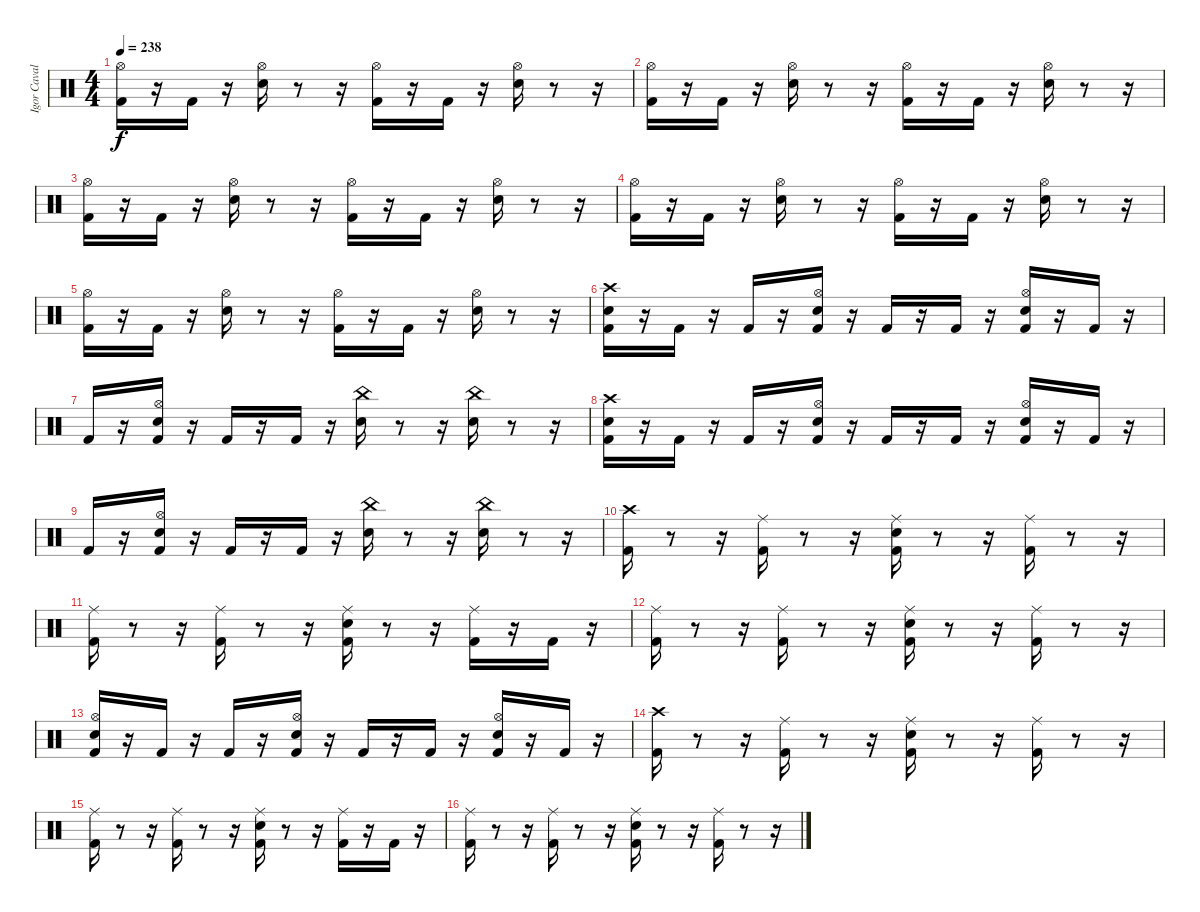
\track ("Igor Cavalera" "Igor Caval") {instrument percussion}
\staff {score}
\articulation defaults
\ts (4 4)
\tempo 238
\clef neutral
\ks c
("Kick (hit) 2" "Hi-Hat (open)").16{dy f} r.16 "Kick (hit) 2".16 r.16 ("Hi-Hat (open)" "Snare (hit) 2").16 r.8 r.16 ("Hi-Hat (open)" "Kick (hit) 2").16 r.16 "Kick (hit) 2".16 r.16 ("Hi-Hat (open)" "Snare (hit) 2").16 r.8 r.16 |
("Kick (hit) 2" "Hi-Hat (open)").16 r.16 "Kick (hit) 2".16 r.16 ("Hi-Hat (open)" "Snare (hit) 2").16 r.8 r.16 ("Hi-Hat (open)" "Kick (hit) 2").16 r.16 "Kick (hit) 2".16 r.16 ("Hi-Hat (open)" "Snare (hit) 2").16 r.8 r.16 |
("Kick (hit) 2" "Hi-Hat (open)").16 r.16 "Kick (hit) 2".16 r.16 ("Hi-Hat (open)" "Snare (hit) 2").16 r.8 r.16 ("Hi-Hat (open)" "Kick (hit) 2").16 r.16 "Kick (hit) 2".16 r.16 ("Hi-Hat (open)" "Snare (hit) 2").16 r.8 r.16 |
("Kick (hit) 2" "Hi-Hat (open)").16 r.16 "Kick (hit) 2".16 r.16 ("Hi-Hat (open)" "Snare (hit) 2").16 r.8 r.16 ("Hi-Hat (open)" "Kick (hit) 2").16 r.16 "Kick (hit) 2".16 r.16 ("Hi-Hat (open)" "Snare (hit) 2").16 r.8 r.16 |
("Kick (hit) 2" "Hi-Hat (open)").16 r.16 "Kick (hit) 2".16 r.16 ("Hi-Hat (open)" "Snare (hit) 2").16 r.8 r.16 ("Hi-Hat (open)" "Kick (hit) 2").16 r.16 "Kick (hit) 2".16 r.16 ("Hi-Hat (open)" "Snare (hit) 2").16 r.8 r.16 |
("Kick (hit) 2" "Crash high (hit)" "Snare (hit) 2").16 r.16 "Kick (hit) 2".16 r.16 "Kick (hit) 2".16 r.16 ("Kick (hit) 2" "Snare (hit) 2" "Hi-Hat (open)").16 r.16 "Kick (hit) 2".16 r.16 "Kick (hit) 2".16 r.16 ("Kick (hit) 2" "Snare (hit) 2" "Hi-Hat (open)").16 r.16 "Kick (hit) 2".16 r.16 |
"Kick (hit) 2".16 r.16 ("Kick (hit) 2" "Snare (hit) 2" "Hi-Hat (open)").16 r.16 "Kick (hit) 2".16 r.16 "Kick (hit) 2".16 r.16 ("Snare (hit) 2" "China (hit)").16 r.8 r.16 ("Snare (hit) 2" "China (hit)").16 r.8 r.16 |
("Kick (hit) 2" "Crash high (hit)" "Snare (hit) 2").16 r.16 "Kick (hit) 2".16 r.16 "Kick (hit) 2".16 r.16 ("Kick (hit) 2" "Snare (hit) 2" "Hi-Hat (open)").16 r.16 "Kick (hit) 2".16 r.16 "Kick (hit) 2".16 r.16 ("Kick (hit) 2" "Snare (hit) 2" "Hi-Hat (open)").16 r.16 "Kick (hit) 2".16 r.16 |
"Kick (hit) 2".16 r.16 ("Kick (hit) 2" "Snare (hit) 2" "Hi-Hat (open)").16 r.16 "Kick (hit) 2".16 r.16 "Kick (hit) 2".16 r.16 ("Snare (hit) 2" "China (hit)").16 r.8 r.16 ("Snare (hit) 2" "China (hit)").16 r.8 r.16 |
("Crash high (hit)" "Kick (hit) 2").16 r.8 r.16 ("Kick (hit) 2" "Ride (middle)").16 r.8 r.16 ("Ride (middle)" "Kick (hit) 2" "Snare (hit) 2").16 r.8 r.16 ("Kick (hit) 2" "Ride (middle)").16 r.8 r.16 |
("Kick (hit) 2" "Ride (middle)").16 r.8 r.16 ("Kick (hit) 2" "Ride (middle)").16 r.8 r.16 ("Ride (middle)" "Kick (hit) 2" "Snare (hit) 2").16 r.8 r.16 ("Kick (hit) 2" "Ride (middle)").16 r.16 "Kick (hit) 2".16 r.16 |
("Kick (hit) 2" "Ride (middle)").16 r.8 r.16 ("Kick (hit) 2" "Ride (middle)").16 r.8 r.16 ("Ride (middle)" "Kick (hit) 2" "Snare (hit) 2").16 r.8 r.16 ("Kick (hit) 2" "Ride (middle)").16 r.8 r.16 |
("Kick (hit) 2" "Snare (hit) 2" "Hi-Hat (open)").16 r.16 "Kick (hit) 2".16 r.16 "Kick (hit) 2".16 r.16 ("Kick (hit) 2" "Hi-Hat (open)" "Snare (hit) 2").16 r.16 "Kick (hit) 2".16 r.16 "Kick (hit) 2".16 r.16 ("Kick (hit) 2" "Hi-Hat (open)" "Snare (hit) 2").16 r.16 "Kick (hit) 2".16 r.16 |
("Crash high (hit)" "Kick (hit) 2").16 r.8 r.16 ("Kick (hit) 2" "Ride (middle)").16 r.8 r.16 ("Ride (middle)" "Kick (hit) 2" "Snare (hit) 2").16 r.8 r.16 ("Kick (hit) 2" "Ride (middle)").16 r.8 r.16 |
("Kick (hit) 2" "Ride (middle)").16 r.8 r.16 ("Kick (hit) 2" "Ride (middle)").16 r.8 r.16 ("Ride (middle)" "Kick (hit) 2" "Snare (hit) 2").16 r.8 r.16 ("Kick (hit) 2" "Ride (middle)").16 r.16 "Kick (hit) 2".16 r.16 |
("Kick (hit) 2" "Ride (middle)").16 r.8 r.16 ("Kick (hit) 2" "Ride (middle)").16 r.8 r.16 ("Ride (middle)" "Kick (hit) 2" "Snare (hit) 2").16 r.8 r.16 ("Kick (hit) 2" "Ride (middle)").16 r.8 r.16
